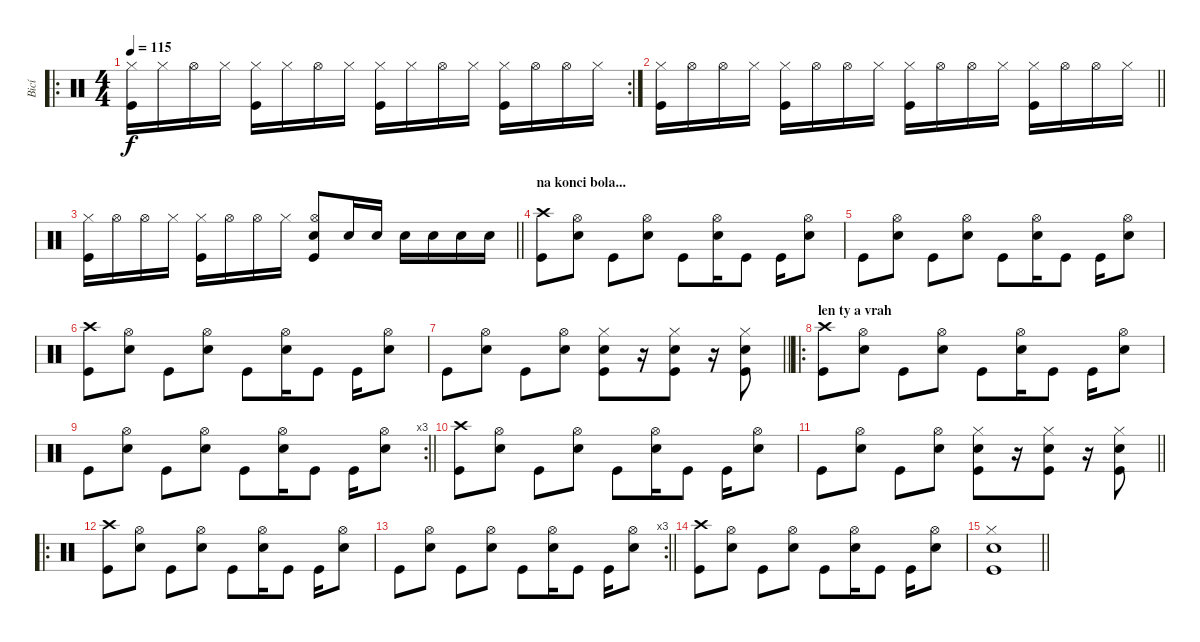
\track ("Bicí" "Bicí") {instrument percussion}
\staff {score}
\articulation defaults
\ro
\rc 2
\ts (4 4)
\tempo 115
\clef neutral
\ks c
("Hi-Hat (closed)" "Kick (hit)").16{dy f} "Hi-Hat (closed)".16 "Hi-Hat (open)".16 "Hi-Hat (closed)".16 ("Hi-Hat (closed)" "Kick (hit)").16 "Hi-Hat (closed)".16 "Hi-Hat (open)".16 "Hi-Hat (closed)".16 ("Hi-Hat (closed)" "Kick (hit)").16 "Hi-Hat (closed)".16 "Hi-Hat (open)".16 "Hi-Hat (closed)".16 ("Hi-Hat (closed)" "Kick (hit)").16 "Hi-Hat (open)".16 "Hi-Hat (open)".16 "Hi-Hat (closed)".16 |
\barLineRight lightlight
("Hi-Hat (closed)" "Kick (hit)").16 "Hi-Hat (open)".16 "Hi-Hat (open)".16 "Hi-Hat (closed)".16 ("Hi-Hat (closed)" "Kick (hit)").16 "Hi-Hat (open)".16 "Hi-Hat (open)".16 "Hi-Hat (closed)".16 ("Hi-Hat (closed)" "Kick (hit)").16 "Hi-Hat (open)".16 "Hi-Hat (open)".16 "Hi-Hat (closed)".16 ("Hi-Hat (closed)" "Kick (hit)").16 "Hi-Hat (open)".16 "Hi-Hat (open)".16 "Hi-Hat (closed)".16 |
\barLineRight lightlight
("Hi-Hat (closed)" "Kick (hit)").16 "Hi-Hat (open)".16 "Hi-Hat (open)".16 "Hi-Hat (closed)".16 ("Hi-Hat (closed)" "Kick (hit)").16 "Hi-Hat (open)".16 "Hi-Hat (open)".16 "Hi-Hat (closed)".16 ("Hi-Hat (open)" "Snare (hit) 2" "Kick (hit)").8 "Snare (hit) 2".16 "Snare (hit) 2".16 "Snare (hit) 2".16 "Snare (hit) 2".16 "Snare (hit) 2".16 "Snare (hit) 2".16 |
\section ("" "na konci bola...")
("Crash high (hit)" "Kick (hit)").8 ("Hi-Hat (open)" "Snare (hit) 2").8 "Kick (hit)".8 ("Hi-Hat (open)" "Snare (hit) 2").8 "Kick (hit)".8 ("Hi-Hat (open)" "Snare (hit) 2").16 "Kick (hit)".8 "Kick (hit)".16 ("Hi-Hat (open)" "Snare (hit) 2").8 |
"Kick (hit)".8 ("Hi-Hat (open)" "Snare (hit) 2").8 "Kick (hit)".8 ("Hi-Hat (open)" "Snare (hit) 2").8 "Kick (hit)".8 ("Hi-Hat (open)" "Snare (hit) 2").16 "Kick (hit)".8 "Kick (hit)".16 ("Hi-Hat (open)" "Snare (hit) 2").8 |
("Crash high (hit)" "Kick (hit)").8 ("Hi-Hat (open)" "Snare (hit) 2").8 "Kick (hit)".8 ("Hi-Hat (open)" "Snare (hit) 2").8 "Kick (hit)".8 ("Hi-Hat (open)" "Snare (hit) 2").16 "Kick (hit)".8 "Kick (hit)".16 ("Hi-Hat (open)" "Snare (hit) 2").8 |
\barLineRight lightlight "Kick (hit)".8
("Hi-Hat (open)" "Snare (hit) 2").8 "Kick (hit)".8 ("Hi-Hat (open)" "Snare (hit) 2").8 ("Hi-Hat (closed)" "Snare (hit) 2" "Kick (hit)").8 r.16 ("Hi-Hat (closed)" "Snare (hit) 2" "Kick (hit)").8 r.16 ("Hi-Hat (closed)" "Snare (hit) 2" "Kick (hit)").8 |
\ro
\section ("" "len ty a vrah")
("Crash high (hit)" "Kick (hit)").8 ("Hi-Hat (open)" "Snare (hit) 2").8 "Kick (hit)".8 ("Hi-Hat (open)" "Snare (hit) 2").8 "Kick (hit)".8 ("Hi-Hat (open)" "Snare (hit) 2").16 "Kick (hit)".8 "Kick (hit)".16 ("Hi-Hat (open)" "Snare (hit) 2").8 |
\rc 3
\barLineRight lightlight "Kick (hit)".8
("Hi-Hat (open)" "Snare (hit) 2").8 "Kick (hit)".8 ("Hi-Hat (open)" "Snare (hit) 2").8 "Kick (hit)".8 ("Hi-Hat (open)" "Snare (hit) 2").16 "Kick (hit)".8 "Kick (hit)".16 ("Hi-Hat (open)" "Snare (hit) 2").8 |
("Crash high (hit)" "Kick (hit)").8 ("Hi-Hat (open)" "Snare (hit) 2").8 "Kick (hit)".8 ("Hi-Hat (open)" "Snare (hit) 2").8 "Kick (hit)".8 ("Hi-Hat (open)" "Snare (hit) 2").16 "Kick (hit)".8 "Kick (hit)".16 ("Hi-Hat (open)" "Snare (hit) 2").8 |
\barLineRight lightlight "Kick (hit)".8
("Hi-Hat (open)" "Snare (hit) 2").8 "Kick (hit)".8 ("Hi-Hat (open)" "Snare (hit) 2").8 ("Hi-Hat (closed)" "Snare (hit) 2" "Kick (hit)").8 r.16 ("Hi-Hat (closed)" "Snare (hit) 2" "Kick (hit)").8 r.16 ("Hi-Hat (closed)" "Snare (hit) 2" "Kick (hit)").8 |
\ro
("Crash high (hit)" "Kick (hit)").8 ("Hi-Hat (open)" "Snare (hit) 2").8 "Kick (hit)".8 ("Hi-Hat (open)" "Snare (hit) 2").8 "Kick (hit)".8 ("Hi-Hat (open)" "Snare (hit) 2").16 "Kick (hit)".8 "Kick (hit)".16 ("Hi-Hat (open)" "Snare (hit) 2").8 |
\rc 3
\barLineRight lightlight "Kick (hit)".8
("Hi-Hat (open)" "Snare (hit) 2").8 "Kick (hit)".8 ("Hi-Hat (open)" "Snare (hit) 2").8 "Kick (hit)".8 ("Hi-Hat (open)" "Snare (hit) 2").16 "Kick (hit)".8 "Kick (hit)".16 ("Hi-Hat (open)" "Snare (hit) 2").8 |
("Crash high (hit)" "Kick (hit)").8 ("Hi-Hat (open)" "Snare (hit) 2").8 "Kick (hit)".8 ("Hi-Hat (open)" "Snare (hit) 2").8 "Kick (hit)".8 ("Hi-Hat (open)" "Snare (hit) 2").16 "Kick (hit)".8 "Kick (hit)".16 ("Hi-Hat (open)" "Snare (hit) 2").8 |
\barLineRight lightlight
("Hi-Hat (closed)" "Snare (hit) 2" "Kick (hit)").1
